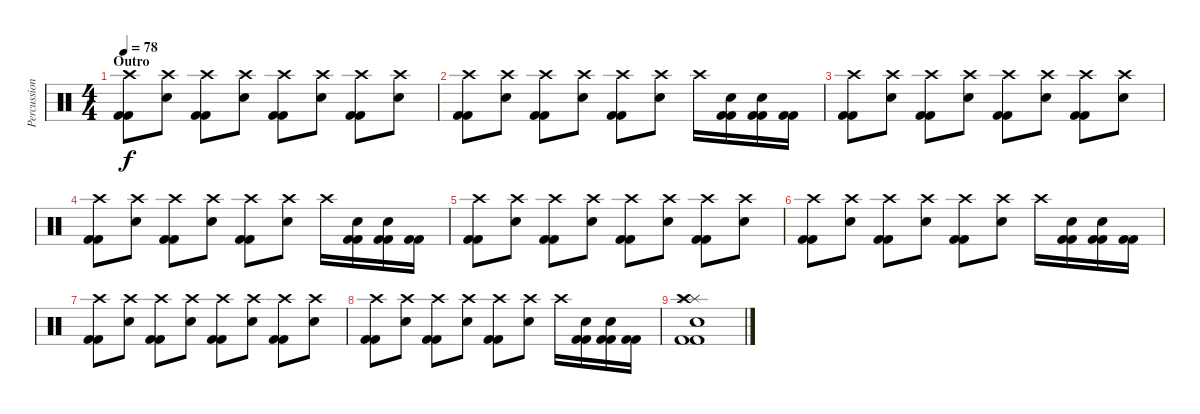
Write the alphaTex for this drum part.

\track ("Percussion" "Percussion") {instrument percussion}
\staff {score}
\articulation defaults
\ts (4 4)
\section ("" "Outro")
\tempo 78
\clef neutral
\ks c
("Crash high (hit)" "Kick (hit) 2" "Kick (hit) 2").8{dy f} ("Crash high (hit)" "Electric Snare (hit)").8 ("Crash high (hit)" "Kick (hit) 2" "Kick (hit) 2").8 ("Crash high (hit)" "Electric Snare (hit)").8 ("Crash high (hit)" "Kick (hit) 2" "Kick (hit) 2").8 ("Crash high (hit)" "Electric Snare (hit)").8 ("Crash high (hit)" "Kick (hit) 2" "Kick (hit) 2").8 ("Crash high (hit)" "Electric Snare (hit)").8 |
("Crash high (hit)" "Kick (hit) 2" "Kick (hit) 2").8 ("Crash high (hit)" "Electric Snare (hit)").8 ("Crash high (hit)" "Kick (hit) 2" "Kick (hit) 2").8 ("Crash high (hit)" "Electric Snare (hit)").8 ("Crash high (hit)" "Kick (hit) 2" "Kick (hit) 2").8 ("Crash high (hit)" "Electric Snare (hit)").8 "Crash high (hit)".16 ("Electric Snare (hit)" "Kick (hit) 2" "Kick (hit) 2").16 ("Electric Snare (hit)" "Kick (hit) 2" "Kick (hit) 2").16 ("Kick (hit) 2" "Kick (hit) 2").16 |
("Crash high (hit)" "Kick (hit) 2" "Kick (hit) 2").8 ("Crash high (hit)" "Electric Snare (hit)").8 ("Crash high (hit)" "Kick (hit) 2" "Kick (hit) 2").8 ("Crash high (hit)" "Electric Snare (hit)").8 ("Crash high (hit)" "Kick (hit) 2" "Kick (hit) 2").8 ("Crash high (hit)" "Electric Snare (hit)").8 ("Crash high (hit)" "Kick (hit) 2" "Kick (hit) 2").8 ("Crash high (hit)" "Electric Snare (hit)").8 |
("Crash high (hit)" "Kick (hit) 2" "Kick (hit) 2").8 ("Crash high (hit)" "Electric Snare (hit)").8 ("Crash high (hit)" "Kick (hit) 2" "Kick (hit) 2").8 ("Crash high (hit)" "Electric Snare (hit)").8 ("Crash high (hit)" "Kick (hit) 2" "Kick (hit) 2").8 ("Crash high (hit)" "Electric Snare (hit)").8 "Crash high (hit)".16 ("Electric Snare (hit)" "Kick (hit) 2" "Kick (hit) 2").16 ("Electric Snare (hit)" "Kick (hit) 2" "Kick (hit) 2").16 ("Kick (hit) 2" "Kick (hit) 2").16 |
("Crash high (hit)" "Kick (hit) 2" "Kick (hit) 2").8 ("Crash high (hit)" "Electric Snare (hit)").8 ("Crash high (hit)" "Kick (hit) 2" "Kick (hit) 2").8 ("Crash high (hit)" "Electric Snare (hit)").8 ("Crash high (hit)" "Kick (hit) 2" "Kick (hit) 2").8 ("Crash high (hit)" "Electric Snare (hit)").8 ("Crash high (hit)" "Kick (hit) 2" "Kick (hit) 2").8 ("Crash high (hit)" "Electric Snare (hit)").8 |
("Crash high (hit)" "Kick (hit) 2" "Kick (hit) 2").8 ("Crash high (hit)" "Electric Snare (hit)").8 ("Crash high (hit)" "Kick (hit) 2" "Kick (hit) 2").8 ("Crash high (hit)" "Electric Snare (hit)").8 ("Crash high (hit)" "Kick (hit) 2" "Kick (hit) 2").8 ("Crash high (hit)" "Electric Snare (hit)").8 "Crash high (hit)".16 ("Electric Snare (hit)" "Kick (hit) 2" "Kick (hit) 2").16 ("Electric Snare (hit)" "Kick (hit) 2" "Kick (hit) 2").16 ("Kick (hit) 2" "Kick (hit) 2").16 |
("Crash high (hit)" "Kick (hit) 2" "Kick (hit) 2").8 ("Crash high (hit)" "Electric Snare (hit)").8 ("Crash high (hit)" "Kick (hit) 2" "Kick (hit) 2").8 ("Crash high (hit)" "Electric Snare (hit)").8 ("Crash high (hit)" "Kick (hit) 2" "Kick (hit) 2").8 ("Crash high (hit)" "Electric Snare (hit)").8 ("Crash high (hit)" "Kick (hit) 2" "Kick (hit) 2").8 ("Crash high (hit)" "Electric Snare (hit)").8 |
("Crash high (hit)" "Kick (hit) 2" "Kick (hit) 2").8 ("Crash high (hit)" "Electric Snare (hit)").8 ("Crash high (hit)" "Kick (hit) 2" "Kick (hit) 2").8 ("Crash high (hit)" "Electric Snare (hit)").8 ("Crash high (hit)" "Kick (hit) 2" "Kick (hit) 2").8 ("Crash high (hit)" "Electric Snare (hit)").8 "Crash high (hit)".16 ("Electric Snare (hit)" "Kick (hit) 2" "Kick (hit) 2").16 ("Electric Snare (hit)" "Kick (hit) 2" "Kick (hit) 2").16 ("Kick (hit) 2" "Kick (hit) 2").16 |
("Splash (hit)" "Splash (hit)" "Crash high (hit)" "Electric Snare (hit)" "Kick (hit) 2" "Kick (hit) 2").1
